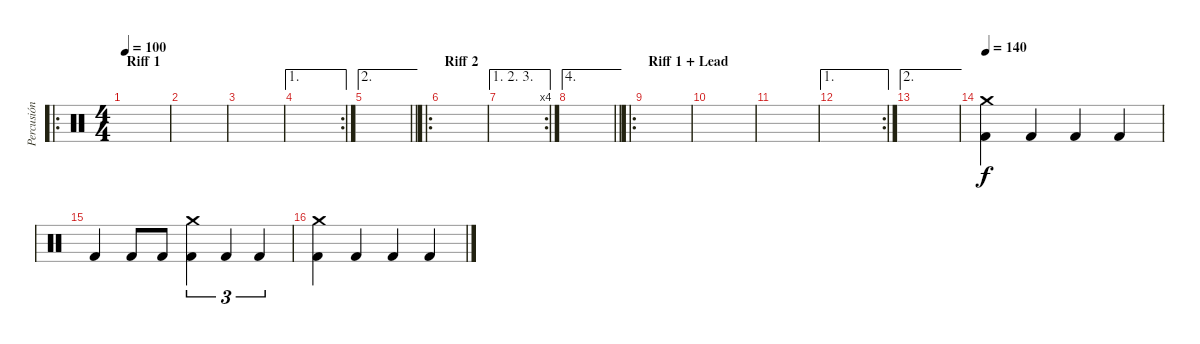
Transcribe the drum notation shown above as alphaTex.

\track ("Percusión" "Percusión") {instrument percussion}
\staff {score}
\articulation defaults
\ro
\ts (4 4)
\section ("" "Riff 1")
\tempo 100
\clef neutral
\ks c
|
|
|
\ae 1
\rc 2
|
\ae 2
\barLineRight lightlight
|
\ro
\section ("" "Riff 2")
|
\ae (1 2 3)
\rc 4
|
\ae 4
\barLineRight lightlight
|
\ro
\section ("" "Riff 1 + Lead")
|
|
|
\ae 1
\rc 2
|
\ae 2
|
\tempo 140
("Crash medium (hit)" "Kick (hit) 2").4 "Kick (hit) 2".4 "Kick (hit) 2".4 "Kick (hit) 2".4 |
"Kick (hit) 2".4 "Kick (hit) 2".8 "Kick (hit) 2".8 ("Crash medium (hit)" "Kick (hit) 2").4{tu (3 2)} "Kick (hit) 2".4{tu (3 2)} "Kick (hit) 2".4{tu (3 2)} |
("Crash medium (hit)" "Kick (hit) 2").4 "Kick (hit) 2".4 "Kick (hit) 2".4 "Kick (hit) 2".4
